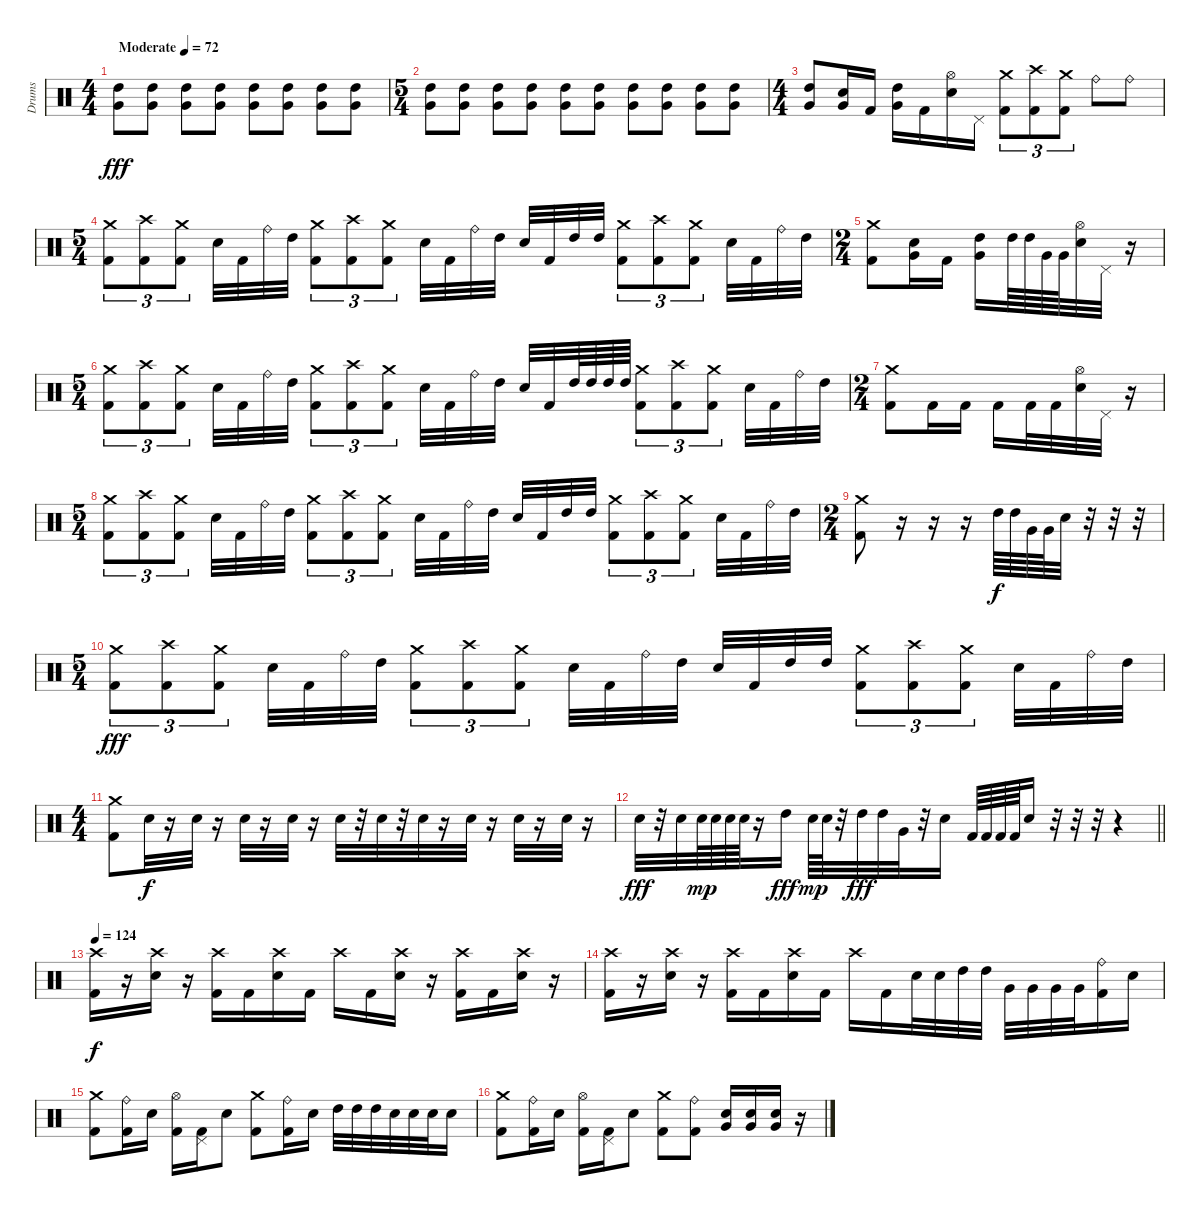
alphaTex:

\track ("Drums" "Drums") {instrument percussion}
\staff {score}
\articulation defaults
\ts (4 4)
\section ("" "")
\tempo (72 "Moderate")
\clef neutral
\ks c
("High Tom (hit)" "Very Low Tom (hit)").8{dy fff} ("High Tom (hit)" "Very Low Tom (hit)").8 ("High Tom (hit)" "Very Low Tom (hit)").8 ("High Tom (hit)" "Very Low Tom (hit)").8 ("High Tom (hit)" "Very Low Tom (hit)").8 ("High Tom (hit)" "Very Low Tom (hit)").8 ("High Tom (hit)" "Very Low Tom (hit)").8 ("High Tom (hit)" "Very Low Tom (hit)").8 |
\ts (5 4)
("High Tom (hit)" "Very Low Tom (hit)").8 ("High Tom (hit)" "Very Low Tom (hit)").8 ("High Tom (hit)" "Very Low Tom (hit)").8 ("High Tom (hit)" "Very Low Tom (hit)").8 ("High Tom (hit)" "Very Low Tom (hit)").8 ("High Tom (hit)" "Very Low Tom (hit)").8 ("High Tom (hit)" "Very Low Tom (hit)").8 ("High Tom (hit)" "Very Low Tom (hit)").8 ("High Tom (hit)" "Very Low Tom (hit)").8 ("High Tom (hit)" "Very Low Tom (hit)").8 |
\ts (4 4)
("High Tom (hit)" "Very Low Tom (hit)").8 ("Snare (hit) 2" "Very Low Tom (hit)").16 "Kick (hit) 2".16 ("High Tom (hit)" "Very Low Tom (hit)").16 "Kick (hit) 2".16 ("Hi-Hat (open)" "Snare (hit) 2").16 "Pedal Hi-Hat (hit)".16 ("Crash medium (hit)" "Kick (hit) 2").8{tu (3 2)} ("Crash high (hit)" "Kick (hit) 2").8{tu (3 2)} ("Crash medium (hit)" "Kick (hit) 2").8{tu (3 2)} "Ride (bell)".8 "Ride (bell)".8 |
\ts (5 4)
("Crash medium (hit)" "Kick (hit) 2").8{tu (3 2)} ("Crash high (hit)" "Kick (hit) 2").8{tu (3 2)} ("Crash medium (hit)" "Kick (hit) 2").8{tu (3 2)} "Snare (hit) 2".32 "Kick (hit) 2".32 "Ride (bell)".32 "High Tom (hit)".32 ("Crash medium (hit)" "Kick (hit) 2").8{tu (3 2)} ("Crash high (hit)" "Kick (hit) 2").8{tu (3 2)} ("Crash medium (hit)" "Kick (hit) 2").8{tu (3 2)} "Snare (hit) 2".32 "Kick (hit) 2".32 "Ride (bell)".32 "High Tom (hit)".32 "Snare (hit) 2".32 "Kick (hit) 2".32 "High Tom (hit)".32 "High Tom (hit)".32 ("Crash medium (hit)" "Kick (hit) 2").8{tu (3 2)} ("Crash high (hit)" "Kick (hit) 2").8{tu (3 2)} ("Crash medium (hit)" "Kick (hit) 2").8{tu (3 2)} "Snare (hit) 2".32 "Kick (hit) 2".32 "Ride (bell)".32 "High Tom (hit)".32 |
\ts (2 4)
("Crash medium (hit)" "Kick (hit) 2").8 ("Snare (hit) 2" "Very Low Tom (hit)").16 "Kick (hit) 2".16 ("High Tom (hit)" "Very Low Tom (hit)").16 "High Tom (hit)".64 "High Tom (hit)".64 "Very Low Tom (hit)".64 "Very Low Tom (hit)".64 ("Hi-Hat (open)" "Snare (hit) 2").32 "Pedal Hi-Hat (hit)".32 r.16 |
\ts (5 4)
("Crash medium (hit)" "Kick (hit) 2").8{tu (3 2)} ("Crash high (hit)" "Kick (hit) 2").8{tu (3 2)} ("Crash medium (hit)" "Kick (hit) 2").8{tu (3 2)} "Snare (hit) 2".32 "Kick (hit) 2".32 "Ride (bell)".32 "High Tom (hit)".32 ("Crash medium (hit)" "Kick (hit) 2").8{tu (3 2)} ("Crash high (hit)" "Kick (hit) 2").8{tu (3 2)} ("Crash medium (hit)" "Kick (hit) 2").8{tu (3 2)} "Snare (hit) 2".32 "Kick (hit) 2".32 "Ride (bell)".32 "High Tom (hit)".32 "Snare (hit) 2".32 "Kick (hit) 2".32 "High Tom (hit)".64 "High Tom (hit)".64 "High Tom (hit)".64 "High Tom (hit)".64 ("Crash medium (hit)" "Kick (hit) 2").8{tu (3 2)} ("Crash high (hit)" "Kick (hit) 2").8{tu (3 2)} ("Crash medium (hit)" "Kick (hit) 2").8{tu (3 2)} "Snare (hit) 2".32 "Kick (hit) 2".32 "Ride (bell)".32 "High Tom (hit)".32 |
\ts (2 4)
("Crash medium (hit)" "Kick (hit) 2").8 "Kick (hit) 2".16 "Kick (hit) 2".16 "Kick (hit) 2".16 "Kick (hit) 2".32 "Kick (hit) 2".32 ("Hi-Hat (open)" "Snare (hit) 2").32 "Pedal Hi-Hat (hit)".32 r.16 |
\ts (5 4)
("Crash medium (hit)" "Kick (hit) 2").8{tu (3 2)} ("Crash high (hit)" "Kick (hit) 2").8{tu (3 2)} ("Crash medium (hit)" "Kick (hit) 2").8{tu (3 2)} "Snare (hit) 2".32 "Kick (hit) 2".32 "Ride (bell)".32 "High Tom (hit)".32 ("Crash medium (hit)" "Kick (hit) 2").8{tu (3 2)} ("Crash high (hit)" "Kick (hit) 2").8{tu (3 2)} ("Crash medium (hit)" "Kick (hit) 2").8{tu (3 2)} "Snare (hit) 2".32 "Kick (hit) 2".32 "Ride (bell)".32 "High Tom (hit)".32 "Snare (hit) 2".32 "Kick (hit) 2".32 "High Tom (hit)".32 "High Tom (hit)".32 ("Crash medium (hit)" "Kick (hit) 2").8{tu (3 2)} ("Crash high (hit)" "Kick (hit) 2").8{tu (3 2)} ("Crash medium (hit)" "Kick (hit) 2").8{tu (3 2)} "Snare (hit) 2".32 "Kick (hit) 2".32 "Ride (bell)".32 "High Tom (hit)".32 |
\ts (2 4)
("Crash medium (hit)" "Kick (hit) 2").8 r.16 r.16 r.16 "High Tom (hit)".64{dy f} "High Tom (hit)".64 "Very Low Tom (hit)".64 "Very Low Tom (hit)".64 "Snare (hit) 2".32 r.32 r.32 r.32 |
\ts (5 4)
("Crash medium (hit)" "Kick (hit) 2").8{tu (3 2) dy fff} ("Crash high (hit)" "Kick (hit) 2").8{tu (3 2)} ("Crash medium (hit)" "Kick (hit) 2").8{tu (3 2)} "Snare (hit) 2".32 "Kick (hit) 2".32 "Ride (bell)".32 "High Tom (hit)".32 ("Crash medium (hit)" "Kick (hit) 2").8{tu (3 2)} ("Crash high (hit)" "Kick (hit) 2").8{tu (3 2)} ("Crash medium (hit)" "Kick (hit) 2").8{tu (3 2)} "Snare (hit) 2".32 "Kick (hit) 2".32 "Ride (bell)".32 "High Tom (hit)".32 "Snare (hit) 2".32 "Kick (hit) 2".32 "High Tom (hit)".32 "High Tom (hit)".32 ("Crash medium (hit)" "Kick (hit) 2").8{tu (3 2)} ("Crash high (hit)" "Kick (hit) 2").8{tu (3 2)} ("Crash medium (hit)" "Kick (hit) 2").8{tu (3 2)} "Snare (hit) 2".32 "Kick (hit) 2".32 "Ride (bell)".32 "High Tom (hit)".32 |
\ts (4 4)
("Crash medium (hit)" "Kick (hit) 2").8 "Snare (hit) 2".32{dy f} r.16 "Snare (hit) 2".32 r.16 "Snare (hit) 2".32 r.16 "Snare (hit) 2".32 r.16 "Snare (hit) 2".32 r.32 "Snare (hit) 2".32 r.32 "Snare (hit) 2".32 r.16 "Snare (hit) 2".32 r.16 "Snare (hit) 2".32 r.16 "Snare (hit) 2".32 r.16 |
\barLineRight lightlight "Snare (hit) 2".32{dy fff}
r.32 "Snare (hit) 2".32 "Snare (hit) 2".64{dy mp} "Snare (hit) 2".64 "Snare (hit) 2".64 "Snare (hit) 2".64 r.16 "High Tom (hit)".16{dy fff} "Snare (hit) 2".64{dy mp} "Snare (hit) 2".64 r.32 "High Tom (hit)".32{dy fff} "High Tom (hit)".32 "Very Low Tom (hit)".32 r.32 "Snare (hit) 2".16 "Kick (hit) 2".64 "Kick (hit) 2".64 "Kick (hit) 2".64 "Kick (hit) 2".64 "Snare (hit) 2".16 r.32 r.32 r.32 r.4 |
\section ("" "")
\tempo 124
("Crash high (hit)" "Kick (hit) 2").16{dy f} r.16 ("Crash high (hit)" "Snare (hit) 2").16 r.16 ("Crash high (hit)" "Kick (hit) 2").16 "Kick (hit) 2".16 ("Crash high (hit)" "Snare (hit) 2").16 "Kick (hit) 2".16 "Crash high (hit)".16 "Kick (hit) 2".16 ("Crash high (hit)" "Snare (hit) 2").16 r.16 ("Crash high (hit)" "Kick (hit) 2").16 "Kick (hit) 2".16 ("Crash high (hit)" "Snare (hit) 2").16 r.16 |
("Crash high (hit)" "Kick (hit) 2").16 r.16 ("Crash high (hit)" "Snare (hit) 2").16 r.16 ("Crash high (hit)" "Kick (hit) 2").16 "Kick (hit) 2".16 ("Crash high (hit)" "Snare (hit) 2").16 "Kick (hit) 2".16 "Crash high (hit)".16 "Kick (hit) 2".16 "Snare (hit) 2".32 "Snare (hit) 2".32 "High Tom (hit)".32 "High Tom (hit)".32 "Very Low Tom (hit)".32 "Very Low Tom (hit)".32 "Very Low Tom (hit)".32 "Very Low Tom (hit)".32 ("Ride (bell)" "Kick (hit) 2").16 "Snare (hit) 2".16 |
("Crash medium (hit)" "Kick (hit) 2").8 ("Ride (bell)" "Kick (hit) 2").16 "Snare (hit) 2".16 ("Hi-Hat (open)" "Kick (hit) 2").16 ("Pedal Hi-Hat (hit)" "Kick (hit) 2").16 "Snare (hit) 2".8 ("Crash medium (hit)" "Kick (hit) 2").8 ("Ride (bell)" "Kick (hit) 2").16 "Snare (hit) 2".16 "High Tom (hit)".32 "High Tom (hit)".32 "High Tom (hit)".32 "Snare (hit) 2".32 "Snare (hit) 2".32 "Snare (hit) 2".32 "Snare (hit) 2".16 |
("Crash medium (hit)" "Kick (hit) 2").8 ("Ride (bell)" "Kick (hit) 2").16 "Snare (hit) 2".16 ("Hi-Hat (open)" "Kick (hit) 2").16 ("Pedal Hi-Hat (hit)" "Kick (hit) 2").16 "Snare (hit) 2".8 ("Crash medium (hit)" "Kick (hit) 2").8 ("Ride (bell)" "Kick (hit) 2").8 ("Snare (hit) 2" "Very Low Tom (hit)").16 ("Snare (hit) 2" "Very Low Tom (hit)").16 ("Snare (hit) 2" "Very Low Tom (hit)").16 r.16
